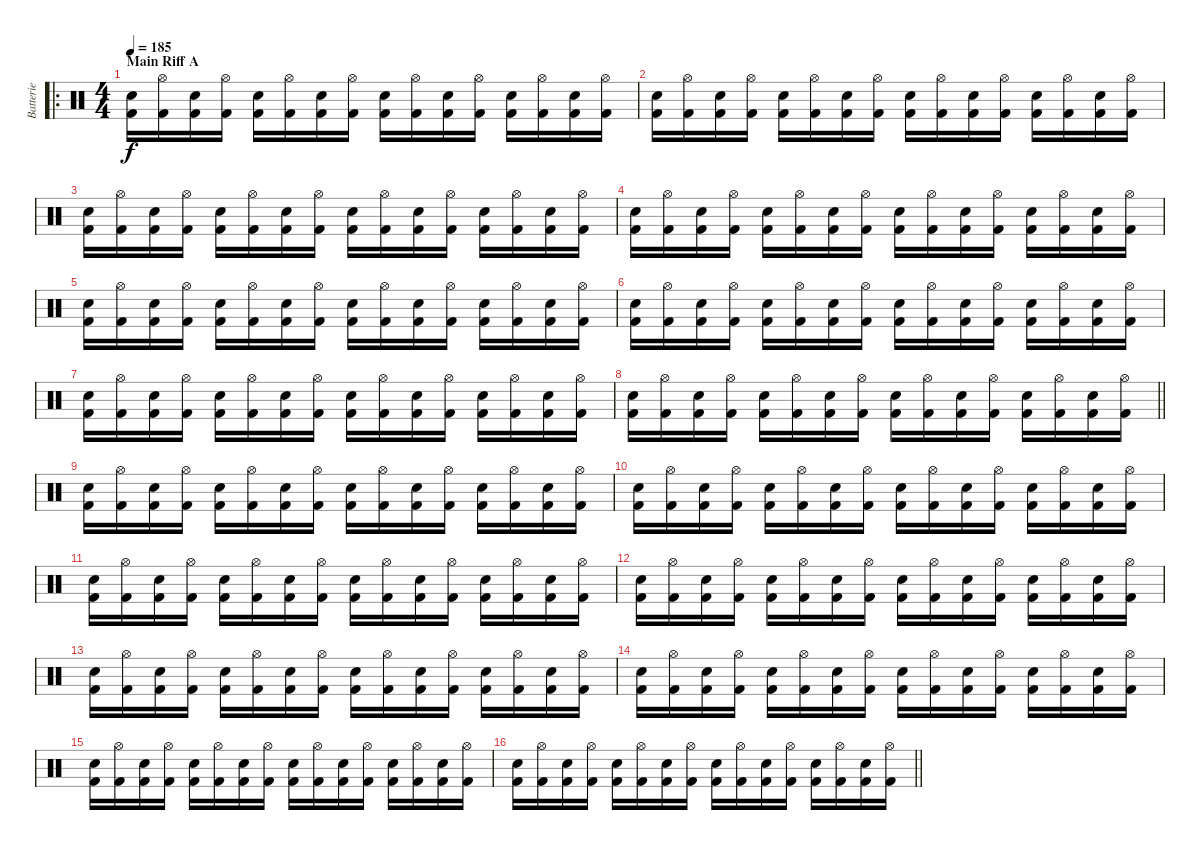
\track ("Batterie" "Batterie") {instrument percussion}
\staff {score}
\articulation defaults
\ro
\ts (4 4)
\section ("" "Main Riff A")
\tempo 185
\clef neutral
\ks c
("Electric Snare (hit)" "Kick (hit) 2").16{dy f} ("Hi-Hat (open)" "Kick (hit) 2").16 ("Electric Snare (hit)" "Kick (hit) 2").16 ("Hi-Hat (open)" "Kick (hit) 2").16 ("Electric Snare (hit)" "Kick (hit) 2").16 ("Hi-Hat (open)" "Kick (hit) 2").16 ("Electric Snare (hit)" "Kick (hit) 2").16 ("Hi-Hat (open)" "Kick (hit) 2").16 ("Electric Snare (hit)" "Kick (hit) 2").16 ("Hi-Hat (open)" "Kick (hit) 2").16 ("Electric Snare (hit)" "Kick (hit) 2").16 ("Hi-Hat (open)" "Kick (hit) 2").16 ("Electric Snare (hit)" "Kick (hit) 2").16 ("Hi-Hat (open)" "Kick (hit) 2").16 ("Electric Snare (hit)" "Kick (hit) 2").16 ("Hi-Hat (open)" "Kick (hit) 2").16 |
("Electric Snare (hit)" "Kick (hit) 2").16 ("Hi-Hat (open)" "Kick (hit) 2").16 ("Electric Snare (hit)" "Kick (hit) 2").16 ("Hi-Hat (open)" "Kick (hit) 2").16 ("Electric Snare (hit)" "Kick (hit) 2").16 ("Hi-Hat (open)" "Kick (hit) 2").16 ("Electric Snare (hit)" "Kick (hit) 2").16 ("Hi-Hat (open)" "Kick (hit) 2").16 ("Electric Snare (hit)" "Kick (hit) 2").16 ("Hi-Hat (open)" "Kick (hit) 2").16 ("Electric Snare (hit)" "Kick (hit) 2").16 ("Hi-Hat (open)" "Kick (hit) 2").16 ("Electric Snare (hit)" "Kick (hit) 2").16 ("Hi-Hat (open)" "Kick (hit) 2").16 ("Electric Snare (hit)" "Kick (hit) 2").16 ("Hi-Hat (open)" "Kick (hit) 2").16 |
("Electric Snare (hit)" "Kick (hit) 2").16 ("Hi-Hat (open)" "Kick (hit) 2").16 ("Electric Snare (hit)" "Kick (hit) 2").16 ("Hi-Hat (open)" "Kick (hit) 2").16 ("Electric Snare (hit)" "Kick (hit) 2").16 ("Hi-Hat (open)" "Kick (hit) 2").16 ("Electric Snare (hit)" "Kick (hit) 2").16 ("Hi-Hat (open)" "Kick (hit) 2").16 ("Electric Snare (hit)" "Kick (hit) 2").16 ("Hi-Hat (open)" "Kick (hit) 2").16 ("Electric Snare (hit)" "Kick (hit) 2").16 ("Hi-Hat (open)" "Kick (hit) 2").16 ("Electric Snare (hit)" "Kick (hit) 2").16 ("Hi-Hat (open)" "Kick (hit) 2").16 ("Electric Snare (hit)" "Kick (hit) 2").16 ("Hi-Hat (open)" "Kick (hit) 2").16 |
("Electric Snare (hit)" "Kick (hit) 2").16 ("Hi-Hat (open)" "Kick (hit) 2").16 ("Electric Snare (hit)" "Kick (hit) 2").16 ("Hi-Hat (open)" "Kick (hit) 2").16 ("Electric Snare (hit)" "Kick (hit) 2").16 ("Hi-Hat (open)" "Kick (hit) 2").16 ("Electric Snare (hit)" "Kick (hit) 2").16 ("Hi-Hat (open)" "Kick (hit) 2").16 ("Electric Snare (hit)" "Kick (hit) 2").16 ("Hi-Hat (open)" "Kick (hit) 2").16 ("Electric Snare (hit)" "Kick (hit) 2").16 ("Hi-Hat (open)" "Kick (hit) 2").16 ("Electric Snare (hit)" "Kick (hit) 2").16 ("Hi-Hat (open)" "Kick (hit) 2").16 ("Electric Snare (hit)" "Kick (hit) 2").16 ("Hi-Hat (open)" "Kick (hit) 2").16 |
("Electric Snare (hit)" "Kick (hit) 2").16 ("Hi-Hat (open)" "Kick (hit) 2").16 ("Electric Snare (hit)" "Kick (hit) 2").16 ("Hi-Hat (open)" "Kick (hit) 2").16 ("Electric Snare (hit)" "Kick (hit) 2").16 ("Hi-Hat (open)" "Kick (hit) 2").16 ("Electric Snare (hit)" "Kick (hit) 2").16 ("Hi-Hat (open)" "Kick (hit) 2").16 ("Electric Snare (hit)" "Kick (hit) 2").16 ("Hi-Hat (open)" "Kick (hit) 2").16 ("Electric Snare (hit)" "Kick (hit) 2").16 ("Hi-Hat (open)" "Kick (hit) 2").16 ("Electric Snare (hit)" "Kick (hit) 2").16 ("Hi-Hat (open)" "Kick (hit) 2").16 ("Electric Snare (hit)" "Kick (hit) 2").16 ("Hi-Hat (open)" "Kick (hit) 2").16 |
("Electric Snare (hit)" "Kick (hit) 2").16 ("Hi-Hat (open)" "Kick (hit) 2").16 ("Electric Snare (hit)" "Kick (hit) 2").16 ("Hi-Hat (open)" "Kick (hit) 2").16 ("Electric Snare (hit)" "Kick (hit) 2").16 ("Hi-Hat (open)" "Kick (hit) 2").16 ("Electric Snare (hit)" "Kick (hit) 2").16 ("Hi-Hat (open)" "Kick (hit) 2").16 ("Electric Snare (hit)" "Kick (hit) 2").16 ("Hi-Hat (open)" "Kick (hit) 2").16 ("Electric Snare (hit)" "Kick (hit) 2").16 ("Hi-Hat (open)" "Kick (hit) 2").16 ("Electric Snare (hit)" "Kick (hit) 2").16 ("Hi-Hat (open)" "Kick (hit) 2").16 ("Electric Snare (hit)" "Kick (hit) 2").16 ("Hi-Hat (open)" "Kick (hit) 2").16 |
("Electric Snare (hit)" "Kick (hit) 2").16 ("Hi-Hat (open)" "Kick (hit) 2").16 ("Electric Snare (hit)" "Kick (hit) 2").16 ("Hi-Hat (open)" "Kick (hit) 2").16 ("Electric Snare (hit)" "Kick (hit) 2").16 ("Hi-Hat (open)" "Kick (hit) 2").16 ("Electric Snare (hit)" "Kick (hit) 2").16 ("Hi-Hat (open)" "Kick (hit) 2").16 ("Electric Snare (hit)" "Kick (hit) 2").16 ("Hi-Hat (open)" "Kick (hit) 2").16 ("Electric Snare (hit)" "Kick (hit) 2").16 ("Hi-Hat (open)" "Kick (hit) 2").16 ("Electric Snare (hit)" "Kick (hit) 2").16 ("Hi-Hat (open)" "Kick (hit) 2").16 ("Electric Snare (hit)" "Kick (hit) 2").16 ("Hi-Hat (open)" "Kick (hit) 2").16 |
\barLineRight lightlight
("Electric Snare (hit)" "Kick (hit) 2").16 ("Hi-Hat (open)" "Kick (hit) 2").16 ("Electric Snare (hit)" "Kick (hit) 2").16 ("Hi-Hat (open)" "Kick (hit) 2").16 ("Electric Snare (hit)" "Kick (hit) 2").16 ("Hi-Hat (open)" "Kick (hit) 2").16 ("Electric Snare (hit)" "Kick (hit) 2").16 ("Hi-Hat (open)" "Kick (hit) 2").16 ("Electric Snare (hit)" "Kick (hit) 2").16 ("Hi-Hat (open)" "Kick (hit) 2").16 ("Electric Snare (hit)" "Kick (hit) 2").16 ("Hi-Hat (open)" "Kick (hit) 2").16 ("Electric Snare (hit)" "Kick (hit) 2").16 ("Hi-Hat (open)" "Kick (hit) 2").16 ("Electric Snare (hit)" "Kick (hit) 2").16 ("Hi-Hat (open)" "Kick (hit) 2").16 |
("Electric Snare (hit)" "Kick (hit) 2").16 ("Hi-Hat (open)" "Kick (hit) 2").16 ("Electric Snare (hit)" "Kick (hit) 2").16 ("Hi-Hat (open)" "Kick (hit) 2").16 ("Electric Snare (hit)" "Kick (hit) 2").16 ("Hi-Hat (open)" "Kick (hit) 2").16 ("Electric Snare (hit)" "Kick (hit) 2").16 ("Hi-Hat (open)" "Kick (hit) 2").16 ("Electric Snare (hit)" "Kick (hit) 2").16 ("Hi-Hat (open)" "Kick (hit) 2").16 ("Electric Snare (hit)" "Kick (hit) 2").16 ("Hi-Hat (open)" "Kick (hit) 2").16 ("Electric Snare (hit)" "Kick (hit) 2").16 ("Hi-Hat (open)" "Kick (hit) 2").16 ("Electric Snare (hit)" "Kick (hit) 2").16 ("Hi-Hat (open)" "Kick (hit) 2").16 |
("Electric Snare (hit)" "Kick (hit) 2").16 ("Hi-Hat (open)" "Kick (hit) 2").16 ("Electric Snare (hit)" "Kick (hit) 2").16 ("Hi-Hat (open)" "Kick (hit) 2").16 ("Electric Snare (hit)" "Kick (hit) 2").16 ("Hi-Hat (open)" "Kick (hit) 2").16 ("Electric Snare (hit)" "Kick (hit) 2").16 ("Hi-Hat (open)" "Kick (hit) 2").16 ("Electric Snare (hit)" "Kick (hit) 2").16 ("Hi-Hat (open)" "Kick (hit) 2").16 ("Electric Snare (hit)" "Kick (hit) 2").16 ("Hi-Hat (open)" "Kick (hit) 2").16 ("Electric Snare (hit)" "Kick (hit) 2").16 ("Hi-Hat (open)" "Kick (hit) 2").16 ("Electric Snare (hit)" "Kick (hit) 2").16 ("Hi-Hat (open)" "Kick (hit) 2").16 |
("Electric Snare (hit)" "Kick (hit) 2").16 ("Hi-Hat (open)" "Kick (hit) 2").16 ("Electric Snare (hit)" "Kick (hit) 2").16 ("Hi-Hat (open)" "Kick (hit) 2").16 ("Electric Snare (hit)" "Kick (hit) 2").16 ("Hi-Hat (open)" "Kick (hit) 2").16 ("Electric Snare (hit)" "Kick (hit) 2").16 ("Hi-Hat (open)" "Kick (hit) 2").16 ("Electric Snare (hit)" "Kick (hit) 2").16 ("Hi-Hat (open)" "Kick (hit) 2").16 ("Electric Snare (hit)" "Kick (hit) 2").16 ("Hi-Hat (open)" "Kick (hit) 2").16 ("Electric Snare (hit)" "Kick (hit) 2").16 ("Hi-Hat (open)" "Kick (hit) 2").16 ("Electric Snare (hit)" "Kick (hit) 2").16 ("Hi-Hat (open)" "Kick (hit) 2").16 |
("Electric Snare (hit)" "Kick (hit) 2").16 ("Hi-Hat (open)" "Kick (hit) 2").16 ("Electric Snare (hit)" "Kick (hit) 2").16 ("Hi-Hat (open)" "Kick (hit) 2").16 ("Electric Snare (hit)" "Kick (hit) 2").16 ("Hi-Hat (open)" "Kick (hit) 2").16 ("Electric Snare (hit)" "Kick (hit) 2").16 ("Hi-Hat (open)" "Kick (hit) 2").16 ("Electric Snare (hit)" "Kick (hit) 2").16 ("Hi-Hat (open)" "Kick (hit) 2").16 ("Electric Snare (hit)" "Kick (hit) 2").16 ("Hi-Hat (open)" "Kick (hit) 2").16 ("Electric Snare (hit)" "Kick (hit) 2").16 ("Hi-Hat (open)" "Kick (hit) 2").16 ("Electric Snare (hit)" "Kick (hit) 2").16 ("Hi-Hat (open)" "Kick (hit) 2").16 |
("Electric Snare (hit)" "Kick (hit) 2").16 ("Hi-Hat (open)" "Kick (hit) 2").16 ("Electric Snare (hit)" "Kick (hit) 2").16 ("Hi-Hat (open)" "Kick (hit) 2").16 ("Electric Snare (hit)" "Kick (hit) 2").16 ("Hi-Hat (open)" "Kick (hit) 2").16 ("Electric Snare (hit)" "Kick (hit) 2").16 ("Hi-Hat (open)" "Kick (hit) 2").16 ("Electric Snare (hit)" "Kick (hit) 2").16 ("Hi-Hat (open)" "Kick (hit) 2").16 ("Electric Snare (hit)" "Kick (hit) 2").16 ("Hi-Hat (open)" "Kick (hit) 2").16 ("Electric Snare (hit)" "Kick (hit) 2").16 ("Hi-Hat (open)" "Kick (hit) 2").16 ("Electric Snare (hit)" "Kick (hit) 2").16 ("Hi-Hat (open)" "Kick (hit) 2").16 |
("Electric Snare (hit)" "Kick (hit) 2").16 ("Hi-Hat (open)" "Kick (hit) 2").16 ("Electric Snare (hit)" "Kick (hit) 2").16 ("Hi-Hat (open)" "Kick (hit) 2").16 ("Electric Snare (hit)" "Kick (hit) 2").16 ("Hi-Hat (open)" "Kick (hit) 2").16 ("Electric Snare (hit)" "Kick (hit) 2").16 ("Hi-Hat (open)" "Kick (hit) 2").16 ("Electric Snare (hit)" "Kick (hit) 2").16 ("Hi-Hat (open)" "Kick (hit) 2").16 ("Electric Snare (hit)" "Kick (hit) 2").16 ("Hi-Hat (open)" "Kick (hit) 2").16 ("Electric Snare (hit)" "Kick (hit) 2").16 ("Hi-Hat (open)" "Kick (hit) 2").16 ("Electric Snare (hit)" "Kick (hit) 2").16 ("Hi-Hat (open)" "Kick (hit) 2").16 |
("Electric Snare (hit)" "Kick (hit) 2").16 ("Hi-Hat (open)" "Kick (hit) 2").16 ("Electric Snare (hit)" "Kick (hit) 2").16 ("Hi-Hat (open)" "Kick (hit) 2").16 ("Electric Snare (hit)" "Kick (hit) 2").16 ("Hi-Hat (open)" "Kick (hit) 2").16 ("Electric Snare (hit)" "Kick (hit) 2").16 ("Hi-Hat (open)" "Kick (hit) 2").16 ("Electric Snare (hit)" "Kick (hit) 2").16 ("Hi-Hat (open)" "Kick (hit) 2").16 ("Electric Snare (hit)" "Kick (hit) 2").16 ("Hi-Hat (open)" "Kick (hit) 2").16 ("Electric Snare (hit)" "Kick (hit) 2").16 ("Hi-Hat (open)" "Kick (hit) 2").16 ("Electric Snare (hit)" "Kick (hit) 2").16 ("Hi-Hat (open)" "Kick (hit) 2").16 |
\barLineRight lightlight
("Electric Snare (hit)" "Kick (hit) 2").16 ("Hi-Hat (open)" "Kick (hit) 2").16 ("Electric Snare (hit)" "Kick (hit) 2").16 ("Hi-Hat (open)" "Kick (hit) 2").16 ("Electric Snare (hit)" "Kick (hit) 2").16 ("Hi-Hat (open)" "Kick (hit) 2").16 ("Electric Snare (hit)" "Kick (hit) 2").16 ("Hi-Hat (open)" "Kick (hit) 2").16 ("Electric Snare (hit)" "Kick (hit) 2").16 ("Hi-Hat (open)" "Kick (hit) 2").16 ("Electric Snare (hit)" "Kick (hit) 2").16 ("Hi-Hat (open)" "Kick (hit) 2").16 ("Electric Snare (hit)" "Kick (hit) 2").16 ("Hi-Hat (open)" "Kick (hit) 2").16 ("Electric Snare (hit)" "Kick (hit) 2").16 ("Hi-Hat (open)" "Kick (hit) 2").16
